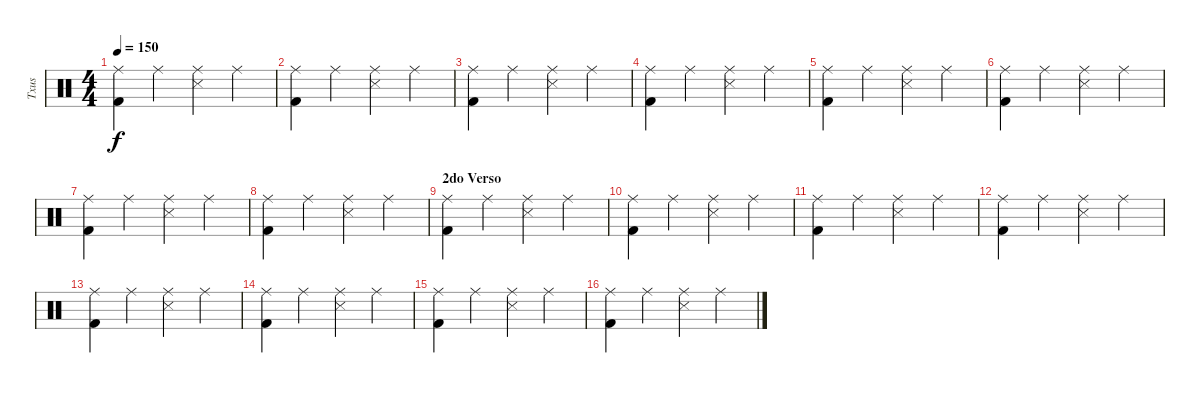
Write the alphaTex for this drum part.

\track ("Txus" "Txus") {instrument percussion}
\staff {score}
\articulation defaults
\ts (4 4)
\tempo 150
\clef neutral
\ks c
("Ride (middle)" "Kick (hit) 2").4{dy f} "Ride (middle)".4 ("Snare (side stick) 3" "Ride (middle)").4 "Ride (middle)".4 |
("Kick (hit) 2" "Ride (middle)").4 "Ride (middle)".4 ("Snare (side stick) 3" "Ride (middle)").4 "Ride (middle)".4 |
("Ride (middle)" "Kick (hit) 2").4 "Ride (middle)".4 ("Snare (side stick) 3" "Ride (middle)").4 "Ride (middle)".4 |
("Kick (hit) 2" "Ride (middle)").4 "Ride (middle)".4 ("Snare (side stick) 3" "Ride (middle)").4 "Ride (middle)".4 |
("Ride (middle)" "Kick (hit) 2").4 "Ride (middle)".4 ("Snare (side stick) 3" "Ride (middle)").4 "Ride (middle)".4 |
("Kick (hit) 2" "Ride (middle)").4 "Ride (middle)".4 ("Snare (side stick) 3" "Ride (middle)").4 "Ride (middle)".4 |
("Ride (middle)" "Kick (hit) 2").4 "Ride (middle)".4 ("Snare (side stick) 3" "Ride (middle)").4 "Ride (middle)".4 |
("Kick (hit) 2" "Ride (middle)").4 "Ride (middle)".4 ("Snare (side stick) 3" "Ride (middle)").4 "Ride (middle)".4 |
\section ("" "2do Verso")
("Ride (middle)" "Kick (hit) 2").4 "Ride (middle)".4 ("Snare (side stick) 3" "Ride (middle)").4 "Ride (middle)".4 |
("Kick (hit) 2" "Ride (middle)").4 "Ride (middle)".4 ("Snare (side stick) 3" "Ride (middle)").4 "Ride (middle)".4 |
("Ride (middle)" "Kick (hit) 2").4 "Ride (middle)".4 ("Snare (side stick) 3" "Ride (middle)").4 "Ride (middle)".4 |
("Kick (hit) 2" "Ride (middle)").4 "Ride (middle)".4 ("Snare (side stick) 3" "Ride (middle)").4 "Ride (middle)".4 |
("Ride (middle)" "Kick (hit) 2").4 "Ride (middle)".4 ("Snare (side stick) 3" "Ride (middle)").4 "Ride (middle)".4 |
("Kick (hit) 2" "Ride (middle)").4 "Ride (middle)".4 ("Snare (side stick) 3" "Ride (middle)").4 "Ride (middle)".4 |
("Ride (middle)" "Kick (hit) 2").4 "Ride (middle)".4 ("Snare (side stick) 3" "Ride (middle)").4 "Ride (middle)".4 |
("Kick (hit) 2" "Ride (middle)").4 "Ride (middle)".4 ("Snare (side stick) 3" "Ride (middle)").4 "Ride (middle)".4
